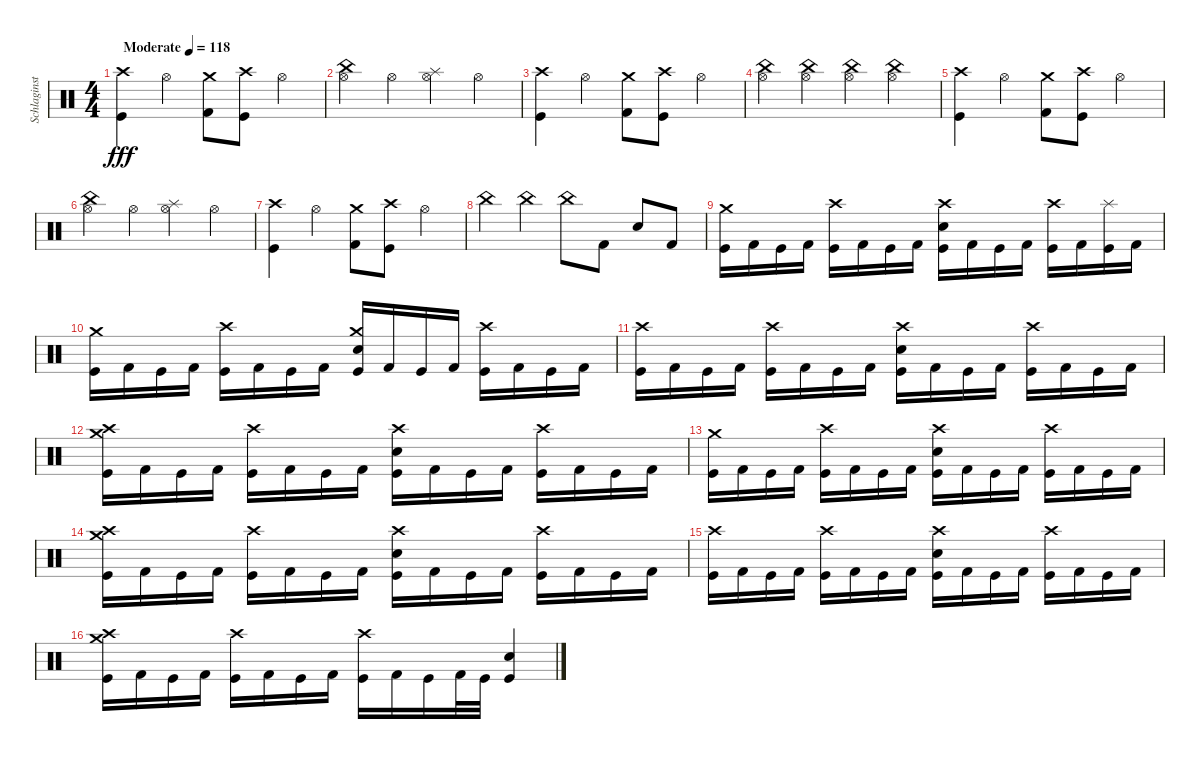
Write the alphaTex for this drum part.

\track ("Schlaginstrumente - Auswahl" "Schlaginst") {instrument percussion}
\staff {score}
\articulation defaults
\ts (4 4)
\tempo (118 "Moderate")
\clef neutral
\ks c
("Crash high (hit)" "Kick (hit)").4{dy fff} "Hi-Hat (open)".4 ("Crash medium (hit)" "Kick (hit) 2").8 ("Crash high (hit)" "Kick (hit)").8 "Hi-Hat (open)".4 |
("Hi-Hat (open)" "China (hit)").4 "Hi-Hat (open)".4 ("Hi-Hat (open)" "Splash (hit)").4 "Hi-Hat (open)".4 |
("Crash high (hit)" "Kick (hit)").4 "Hi-Hat (open)".4 ("Crash medium (hit)" "Kick (hit) 2").8 ("Crash high (hit)" "Kick (hit)").8 "Hi-Hat (open)".4 |
("Hi-Hat (open)" "China (hit)").4 ("Hi-Hat (open)" "China (hit)").4 ("Hi-Hat (open)" "China (hit)").4 ("Hi-Hat (open)" "China (hit)").4 |
("Crash high (hit)" "Kick (hit)").4 "Hi-Hat (open)".4 ("Crash medium (hit)" "Kick (hit) 2").8 ("Crash high (hit)" "Kick (hit)").8 "Hi-Hat (open)".4 |
("Hi-Hat (open)" "China (hit)").4 "Hi-Hat (open)".4 ("Hi-Hat (open)" "Splash (hit)").4 "Hi-Hat (open)".4 |
("Crash high (hit)" "Kick (hit)").4 "Hi-Hat (open)".4 ("Crash medium (hit)" "Kick (hit) 2").8 ("Crash high (hit)" "Kick (hit)").8 "Hi-Hat (open)".4 |
"China (hit)".4 "China (hit)".4 "China (hit)".8 "Kick (hit) 2".8 "Snare (hit) 2".8 "Kick (hit) 2".8 |
("Crash medium (hit)" "Kick (hit)").16 "Kick (hit) 2".16 "Kick (hit)".16 "Kick (hit) 2".16 ("Crash high (hit)" "Kick (hit)").16 "Kick (hit) 2".16 "Kick (hit)".16 "Kick (hit) 2".16 ("Crash high (hit)" "Snare (hit) 2" "Kick (hit)").16 "Kick (hit) 2".16 "Kick (hit)".16 "Kick (hit) 2".16 ("Crash high (hit)" "Kick (hit)").16 "Kick (hit) 2".16 ("Splash (hit)" "Kick (hit)").16 "Kick (hit) 2".16 |
("Crash medium (hit)" "Kick (hit)").16 "Kick (hit) 2".16 "Kick (hit)".16 "Kick (hit) 2".16 ("Crash high (hit)" "Kick (hit)").16 "Kick (hit) 2".16 "Kick (hit)".16 "Kick (hit) 2".16 ("Crash medium (hit)" "Snare (hit) 2" "Kick (hit)").16 "Kick (hit) 2".16 "Kick (hit)".16 "Kick (hit) 2".16 ("Crash high (hit)" "Kick (hit)").16 "Kick (hit) 2".16 "Kick (hit)".16 "Kick (hit) 2".16 |
("Crash high (hit)" "Kick (hit)").16 "Kick (hit) 2".16 "Kick (hit)".16 "Kick (hit) 2".16 ("Crash high (hit)" "Kick (hit)").16 "Kick (hit) 2".16 "Kick (hit)".16 "Kick (hit) 2".16 ("Crash high (hit)" "Snare (hit) 2" "Kick (hit)").16 "Kick (hit) 2".16 "Kick (hit)".16 "Kick (hit) 2".16 ("Crash high (hit)" "Kick (hit)").16 "Kick (hit) 2".16 "Kick (hit)".16 "Kick (hit) 2".16 |
("Crash high (hit)" "Crash medium (hit)" "Kick (hit)").16 "Kick (hit) 2".16 "Kick (hit)".16 "Kick (hit) 2".16 ("Crash high (hit)" "Kick (hit)").16 "Kick (hit) 2".16 "Kick (hit)".16 "Kick (hit) 2".16 ("Crash high (hit)" "Snare (hit) 2" "Kick (hit)").16 "Kick (hit) 2".16 "Kick (hit)".16 "Kick (hit) 2".16 ("Crash high (hit)" "Kick (hit)").16 "Kick (hit) 2".16 "Kick (hit)".16 "Kick (hit) 2".16 |
("Crash medium (hit)" "Kick (hit)").16 "Kick (hit) 2".16 "Kick (hit)".16 "Kick (hit) 2".16 ("Crash high (hit)" "Kick (hit)").16 "Kick (hit) 2".16 "Kick (hit)".16 "Kick (hit) 2".16 ("Crash high (hit)" "Snare (hit) 2" "Kick (hit)").16 "Kick (hit) 2".16 "Kick (hit)".16 "Kick (hit) 2".16 ("Crash high (hit)" "Kick (hit)").16 "Kick (hit) 2".16 "Kick (hit)".16 "Kick (hit) 2".16 |
("Crash high (hit)" "Crash medium (hit)" "Kick (hit)").16 "Kick (hit) 2".16 "Kick (hit)".16 "Kick (hit) 2".16 ("Crash high (hit)" "Kick (hit)").16 "Kick (hit) 2".16 "Kick (hit)".16 "Kick (hit) 2".16 ("Crash high (hit)" "Snare (hit) 2" "Kick (hit)").16 "Kick (hit) 2".16 "Kick (hit)".16 "Kick (hit) 2".16 ("Crash high (hit)" "Kick (hit)").16 "Kick (hit) 2".16 "Kick (hit)".16 "Kick (hit) 2".16 |
("Crash high (hit)" "Kick (hit)").16 "Kick (hit) 2".16 "Kick (hit)".16 "Kick (hit) 2".16 ("Crash high (hit)" "Kick (hit)").16 "Kick (hit) 2".16 "Kick (hit)".16 "Kick (hit) 2".16 ("Crash high (hit)" "Snare (hit) 2" "Kick (hit)").16 "Kick (hit) 2".16 "Kick (hit)".16 "Kick (hit) 2".16 ("Crash high (hit)" "Kick (hit)").16 "Kick (hit) 2".16 "Kick (hit)".16 "Kick (hit) 2".16 |
("Crash medium (hit)" "Crash high (hit)" "Kick (hit)").16 "Kick (hit) 2".16 "Kick (hit)".16 "Kick (hit) 2".16 ("Crash high (hit)" "Kick (hit)").16 "Kick (hit) 2".16 "Kick (hit)".16 "Kick (hit) 2".16 ("Crash high (hit)" "Kick (hit)").16 "Kick (hit) 2".16 "Kick (hit)".16 "Kick (hit) 2".32 "Kick (hit)".32 ("Snare (hit) 2" "Kick (hit)").4
